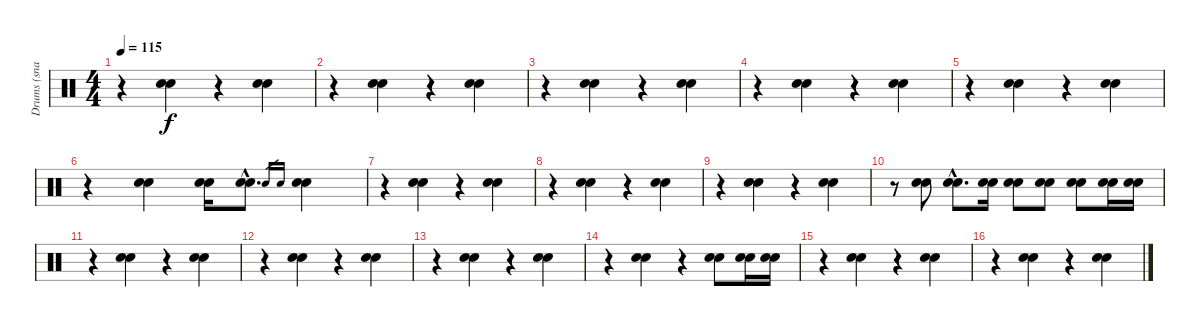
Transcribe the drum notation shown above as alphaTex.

\track ("Drums (snare drum)" "Drums (sna") {instrument percussion}
\staff {score}
\articulation defaults
\ts (4 4)
\tempo 115
\clef neutral
\ks c
r.4{dy f} ("Electric Snare (hit)" "Snare (hit) 2").4 r.4 ("Electric Snare (hit)" "Snare (hit) 2").4 |
r.4 ("Electric Snare (hit)" "Snare (hit) 2").4 r.4 ("Electric Snare (hit)" "Snare (hit) 2").4 |
r.4 ("Electric Snare (hit)" "Snare (hit) 2").4 r.4 ("Electric Snare (hit)" "Snare (hit) 2").4 |
r.4 ("Electric Snare (hit)" "Snare (hit) 2").4 r.4 ("Electric Snare (hit)" "Snare (hit) 2").4 |
r.4 ("Electric Snare (hit)" "Snare (hit) 2").4 r.4 ("Electric Snare (hit)" "Snare (hit) 2").4 |
r.4 ("Electric Snare (hit)" "Snare (hit) 2").4 ("Electric Snare (hit)" "Snare (hit) 2").16 ("Electric Snare (hit)"{hac} "Snare (hit) 2"{hac}).8{d} "Electric Snare (hit)".16{gr} "Snare (hit) 2".16{gr} ("Electric Snare (hit)" "Snare (hit) 2").4 |
r.4 ("Electric Snare (hit)" "Snare (hit) 2").4 r.4 ("Electric Snare (hit)" "Snare (hit) 2").4 |
r.4 ("Electric Snare (hit)" "Snare (hit) 2").4 r.4 ("Electric Snare (hit)" "Snare (hit) 2").4 |
r.4 ("Electric Snare (hit)" "Snare (hit) 2").4 r.4 ("Electric Snare (hit)" "Snare (hit) 2").4 |
r.8 ("Electric Snare (hit)" "Snare (hit) 2").8 ("Electric Snare (hit)"{hac} "Snare (hit) 2"{hac}).8{d} ("Electric Snare (hit)" "Snare (hit) 2").16 ("Electric Snare (hit)" "Snare (hit) 2").8 ("Electric Snare (hit)" "Snare (hit) 2").8 ("Electric Snare (hit)" "Snare (hit) 2").8 ("Electric Snare (hit)" "Snare (hit) 2").16 ("Electric Snare (hit)" "Snare (hit) 2").16 |
r.4 ("Electric Snare (hit)" "Snare (hit) 2").4 r.4 ("Electric Snare (hit)" "Snare (hit) 2").4 |
r.4 ("Electric Snare (hit)" "Snare (hit) 2").4 r.4 ("Electric Snare (hit)" "Snare (hit) 2").4 |
r.4 ("Electric Snare (hit)" "Snare (hit) 2").4 r.4 ("Electric Snare (hit)" "Snare (hit) 2").4 |
r.4 ("Electric Snare (hit)" "Snare (hit) 2").4 r.4 ("Electric Snare (hit)" "Snare (hit) 2").8 ("Electric Snare (hit)" "Snare (hit) 2").16 ("Electric Snare (hit)" "Snare (hit) 2").16 |
r.4 ("Electric Snare (hit)" "Snare (hit) 2").4 r.4 ("Electric Snare (hit)" "Snare (hit) 2").4 |
r.4 ("Electric Snare (hit)" "Snare (hit) 2").4 r.4 ("Electric Snare (hit)" "Snare (hit) 2").4
